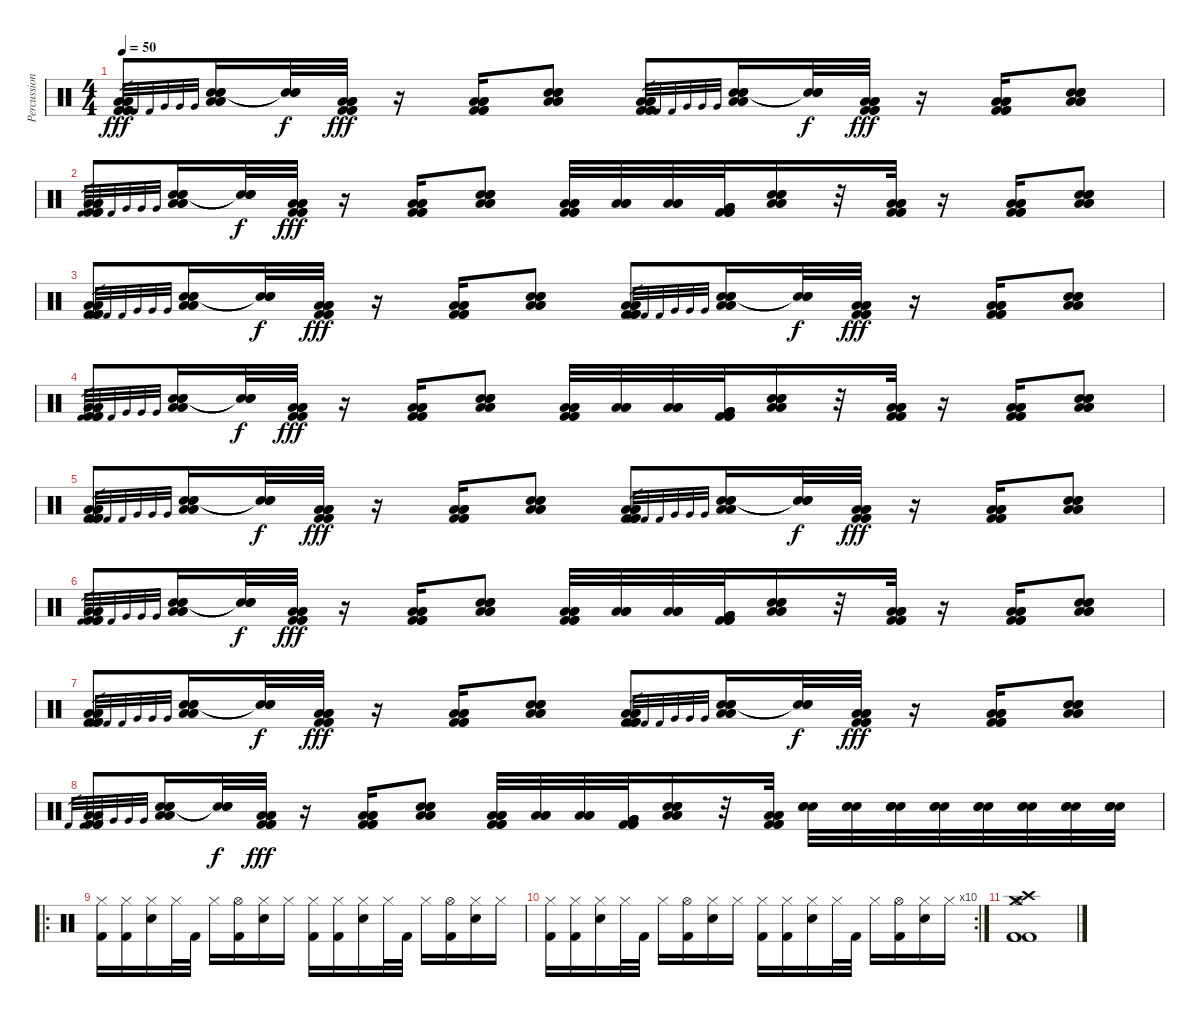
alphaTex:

\track ("Percussion" "Percussion") {instrument percussion}
\staff {score}
\articulation defaults
\ts (4 4)
\tempo 50
\clef neutral
\ks c
("Kick (hit) 2" "Kick (hit) 2" "Kick (hit) 2" "Low Floor Tom (hit)" "Low Floor Tom (hit)" "Low Floor Tom (hit)").8{dy fff} "Kick (hit) 2".32{gr} "Kick (hit) 2".32{gr} "Kick (hit) 2".32{gr} "Very Low Tom (hit)".32{gr} "Very Low Tom (hit)".32{gr} "Very Low Tom (hit)".32{gr} ("Electric Snare (hit)" "Electric Snare (hit)" "Electric Snare (hit)" "Low Tom (hit)" "Low Tom (hit)" "Low Tom (hit)").16 ("Snare (hit)"{t} "Snare (hit)"{t} "Snare (hit)"{t}).32{dy f} ("Kick (hit) 2" "Kick (hit) 2" "Kick (hit) 2" "Low Floor Tom (hit)" "Low Floor Tom (hit)" "Low Floor Tom (hit)").32{dy fff} r.16 ("Kick (hit) 2" "Kick (hit) 2" "Kick (hit) 2" "Low Floor Tom (hit)" "Low Floor Tom (hit)" "Low Floor Tom (hit)").16 ("Electric Snare (hit)" "Electric Snare (hit)" "Electric Snare (hit)" "Low Tom (hit)" "Low Tom (hit)" "Low Tom (hit)").8 ("Kick (hit) 2" "Kick (hit) 2" "Kick (hit) 2" "Low Floor Tom (hit)" "Low Floor Tom (hit)" "Low Floor Tom (hit)").8 "Kick (hit) 2".32{gr} "Kick (hit) 2".32{gr} "Kick (hit) 2".32{gr} "Very Low Tom (hit)".32{gr} "Very Low Tom (hit)".32{gr} "Very Low Tom (hit)".32{gr} ("Electric Snare (hit)" "Electric Snare (hit)" "Electric Snare (hit)" "Low Tom (hit)" "Low Tom (hit)" "Low Tom (hit)").16 ("Snare (hit)"{t} "Snare (hit)"{t} "Snare (hit)"{t}).32{dy f} ("Kick (hit) 2" "Kick (hit) 2" "Kick (hit) 2" "Low Floor Tom (hit)" "Low Floor Tom (hit)" "Low Floor Tom (hit)").32{dy fff} r.16 ("Kick (hit) 2" "Kick (hit) 2" "Kick (hit) 2" "Low Floor Tom (hit)" "Low Floor Tom (hit)" "Low Floor Tom (hit)").16 ("Electric Snare (hit)" "Electric Snare (hit)" "Electric Snare (hit)" "Low Tom (hit)" "Low Tom (hit)" "Low Tom (hit)").8 |
("Kick (hit) 2" "Kick (hit) 2" "Kick (hit) 2" "Low Floor Tom (hit)" "Low Floor Tom (hit)" "Low Floor Tom (hit)").8 "Kick (hit) 2".32{gr} "Kick (hit) 2".32{gr} "Kick (hit) 2".32{gr} "Very Low Tom (hit)".32{gr} "Very Low Tom (hit)".32{gr} "Very Low Tom (hit)".32{gr} ("Electric Snare (hit)" "Electric Snare (hit)" "Electric Snare (hit)" "Low Tom (hit)" "Low Tom (hit)" "Low Tom (hit)").16 ("Snare (hit)"{t} "Snare (hit)"{t} "Snare (hit)"{t}).32{dy f} ("Kick (hit) 2" "Kick (hit) 2" "Kick (hit) 2" "Low Floor Tom (hit)" "Low Floor Tom (hit)" "Low Floor Tom (hit)").32{dy fff} r.16 ("Kick (hit) 2" "Kick (hit) 2" "Kick (hit) 2" "Low Floor Tom (hit)" "Low Floor Tom (hit)" "Low Floor Tom (hit)").16 ("Electric Snare (hit)" "Electric Snare (hit)" "Electric Snare (hit)" "Low Tom (hit)" "Low Tom (hit)" "Low Tom (hit)").8 ("Kick (hit) 2" "Kick (hit) 2" "Kick (hit) 2" "Low Floor Tom (hit)" "Low Floor Tom (hit)" "Low Floor Tom (hit)").32 ("Low Tom (hit)" "Low Tom (hit)" "Low Tom (hit)").32 ("Low Floor Tom (hit)" "Low Floor Tom (hit)" "Low Floor Tom (hit)").32 ("Very Low Tom (hit)" "Very Low Tom (hit)" "Very Low Tom (hit)" "Kick (hit) 2" "Kick (hit) 2" "Kick (hit) 2").32 ("Electric Snare (hit)" "Electric Snare (hit)" "Electric Snare (hit)" "Low Tom (hit)" "Low Tom (hit)" "Low Tom (hit)").16 r.32 ("Kick (hit) 2" "Kick (hit) 2" "Kick (hit) 2" "Low Floor Tom (hit)" "Low Floor Tom (hit)" "Low Floor Tom (hit)").32 r.16 ("Kick (hit) 2" "Kick (hit) 2" "Kick (hit) 2" "Low Floor Tom (hit)" "Low Floor Tom (hit)" "Low Floor Tom (hit)").16 ("Electric Snare (hit)" "Electric Snare (hit)" "Electric Snare (hit)" "Low Tom (hit)" "Low Tom (hit)" "Low Tom (hit)").8 |
("Kick (hit) 2" "Kick (hit) 2" "Kick (hit) 2" "Low Floor Tom (hit)" "Low Floor Tom (hit)" "Low Floor Tom (hit)").8 "Kick (hit) 2".32{gr} "Kick (hit) 2".32{gr} "Kick (hit) 2".32{gr} "Very Low Tom (hit)".32{gr} "Very Low Tom (hit)".32{gr} "Very Low Tom (hit)".32{gr} ("Electric Snare (hit)" "Electric Snare (hit)" "Electric Snare (hit)" "Low Tom (hit)" "Low Tom (hit)" "Low Tom (hit)").16 ("Snare (hit)"{t} "Snare (hit)"{t} "Snare (hit)"{t}).32{dy f} ("Kick (hit) 2" "Kick (hit) 2" "Kick (hit) 2" "Low Floor Tom (hit)" "Low Floor Tom (hit)" "Low Floor Tom (hit)").32{dy fff} r.16 ("Kick (hit) 2" "Kick (hit) 2" "Kick (hit) 2" "Low Floor Tom (hit)" "Low Floor Tom (hit)" "Low Floor Tom (hit)").16 ("Electric Snare (hit)" "Electric Snare (hit)" "Electric Snare (hit)" "Low Tom (hit)" "Low Tom (hit)" "Low Tom (hit)").8 ("Kick (hit) 2" "Kick (hit) 2" "Kick (hit) 2" "Low Floor Tom (hit)" "Low Floor Tom (hit)" "Low Floor Tom (hit)").8 "Kick (hit) 2".32{gr} "Kick (hit) 2".32{gr} "Kick (hit) 2".32{gr} "Very Low Tom (hit)".32{gr} "Very Low Tom (hit)".32{gr} "Very Low Tom (hit)".32{gr} ("Electric Snare (hit)" "Electric Snare (hit)" "Electric Snare (hit)" "Low Tom (hit)" "Low Tom (hit)" "Low Tom (hit)").16 ("Snare (hit)"{t} "Snare (hit)"{t} "Snare (hit)"{t}).32{dy f} ("Kick (hit) 2" "Kick (hit) 2" "Kick (hit) 2" "Low Floor Tom (hit)" "Low Floor Tom (hit)" "Low Floor Tom (hit)").32{dy fff} r.16 ("Kick (hit) 2" "Kick (hit) 2" "Kick (hit) 2" "Low Floor Tom (hit)" "Low Floor Tom (hit)" "Low Floor Tom (hit)").16 ("Electric Snare (hit)" "Electric Snare (hit)" "Electric Snare (hit)" "Low Tom (hit)" "Low Tom (hit)" "Low Tom (hit)").8 |
("Kick (hit) 2" "Kick (hit) 2" "Kick (hit) 2" "Low Floor Tom (hit)" "Low Floor Tom (hit)" "Low Floor Tom (hit)").8 "Kick (hit) 2".32{gr} "Kick (hit) 2".32{gr} "Kick (hit) 2".32{gr} "Very Low Tom (hit)".32{gr} "Very Low Tom (hit)".32{gr} "Very Low Tom (hit)".32{gr} ("Electric Snare (hit)" "Electric Snare (hit)" "Electric Snare (hit)" "Low Tom (hit)" "Low Tom (hit)" "Low Tom (hit)").16 ("Snare (hit)"{t} "Snare (hit)"{t} "Snare (hit)"{t}).32{dy f} ("Kick (hit) 2" "Kick (hit) 2" "Kick (hit) 2" "Low Floor Tom (hit)" "Low Floor Tom (hit)" "Low Floor Tom (hit)").32{dy fff} r.16 ("Kick (hit) 2" "Kick (hit) 2" "Kick (hit) 2" "Low Floor Tom (hit)" "Low Floor Tom (hit)" "Low Floor Tom (hit)").16 ("Electric Snare (hit)" "Electric Snare (hit)" "Electric Snare (hit)" "Low Tom (hit)" "Low Tom (hit)" "Low Tom (hit)").8 ("Kick (hit) 2" "Kick (hit) 2" "Kick (hit) 2" "Low Floor Tom (hit)" "Low Floor Tom (hit)" "Low Floor Tom (hit)").32 ("Low Tom (hit)" "Low Tom (hit)" "Low Tom (hit)").32 ("Low Floor Tom (hit)" "Low Floor Tom (hit)" "Low Floor Tom (hit)").32 ("Very Low Tom (hit)" "Very Low Tom (hit)" "Very Low Tom (hit)" "Kick (hit) 2" "Kick (hit) 2" "Kick (hit) 2").32 ("Electric Snare (hit)" "Electric Snare (hit)" "Electric Snare (hit)" "Low Tom (hit)" "Low Tom (hit)" "Low Tom (hit)").16 r.32 ("Kick (hit) 2" "Kick (hit) 2" "Kick (hit) 2" "Low Floor Tom (hit)" "Low Floor Tom (hit)" "Low Floor Tom (hit)").32 r.16 ("Kick (hit) 2" "Kick (hit) 2" "Kick (hit) 2" "Low Floor Tom (hit)" "Low Floor Tom (hit)" "Low Floor Tom (hit)").16 ("Electric Snare (hit)" "Electric Snare (hit)" "Electric Snare (hit)" "Low Tom (hit)" "Low Tom (hit)" "Low Tom (hit)").8 |
("Kick (hit) 2" "Kick (hit) 2" "Kick (hit) 2" "Low Floor Tom (hit)" "Low Floor Tom (hit)" "Low Floor Tom (hit)").8 "Kick (hit) 2".32{gr} "Kick (hit) 2".32{gr} "Kick (hit) 2".32{gr} "Very Low Tom (hit)".32{gr} "Very Low Tom (hit)".32{gr} "Very Low Tom (hit)".32{gr} ("Electric Snare (hit)" "Electric Snare (hit)" "Electric Snare (hit)" "Low Tom (hit)" "Low Tom (hit)" "Low Tom (hit)").16 ("Snare (hit)"{t} "Snare (hit)"{t} "Snare (hit)"{t}).32{dy f} ("Kick (hit) 2" "Kick (hit) 2" "Kick (hit) 2" "Low Floor Tom (hit)" "Low Floor Tom (hit)" "Low Floor Tom (hit)").32{dy fff} r.16 ("Kick (hit) 2" "Kick (hit) 2" "Kick (hit) 2" "Low Floor Tom (hit)" "Low Floor Tom (hit)" "Low Floor Tom (hit)").16 ("Electric Snare (hit)" "Electric Snare (hit)" "Electric Snare (hit)" "Low Tom (hit)" "Low Tom (hit)" "Low Tom (hit)").8 ("Kick (hit) 2" "Kick (hit) 2" "Kick (hit) 2" "Low Floor Tom (hit)" "Low Floor Tom (hit)" "Low Floor Tom (hit)").8 "Kick (hit) 2".32{gr} "Kick (hit) 2".32{gr} "Kick (hit) 2".32{gr} "Very Low Tom (hit)".32{gr} "Very Low Tom (hit)".32{gr} "Very Low Tom (hit)".32{gr} ("Electric Snare (hit)" "Electric Snare (hit)" "Electric Snare (hit)" "Low Tom (hit)" "Low Tom (hit)" "Low Tom (hit)").16 ("Snare (hit)"{t} "Snare (hit)"{t} "Snare (hit)"{t}).32{dy f} ("Kick (hit) 2" "Kick (hit) 2" "Kick (hit) 2" "Low Floor Tom (hit)" "Low Floor Tom (hit)" "Low Floor Tom (hit)").32{dy fff} r.16 ("Kick (hit) 2" "Kick (hit) 2" "Kick (hit) 2" "Low Floor Tom (hit)" "Low Floor Tom (hit)" "Low Floor Tom (hit)").16 ("Electric Snare (hit)" "Electric Snare (hit)" "Electric Snare (hit)" "Low Tom (hit)" "Low Tom (hit)" "Low Tom (hit)").8 |
("Kick (hit) 2" "Kick (hit) 2" "Kick (hit) 2" "Low Floor Tom (hit)" "Low Floor Tom (hit)" "Low Floor Tom (hit)").8 "Kick (hit) 2".32{gr} "Kick (hit) 2".32{gr} "Kick (hit) 2".32{gr} "Very Low Tom (hit)".32{gr} "Very Low Tom (hit)".32{gr} "Very Low Tom (hit)".32{gr} ("Electric Snare (hit)" "Electric Snare (hit)" "Electric Snare (hit)" "Low Tom (hit)" "Low Tom (hit)" "Low Tom (hit)").16 ("Snare (hit)"{t} "Snare (hit)"{t} "Snare (hit)"{t}).32{dy f} ("Kick (hit) 2" "Kick (hit) 2" "Kick (hit) 2" "Low Floor Tom (hit)" "Low Floor Tom (hit)" "Low Floor Tom (hit)").32{dy fff} r.16 ("Kick (hit) 2" "Kick (hit) 2" "Kick (hit) 2" "Low Floor Tom (hit)" "Low Floor Tom (hit)" "Low Floor Tom (hit)").16 ("Electric Snare (hit)" "Electric Snare (hit)" "Electric Snare (hit)" "Low Tom (hit)" "Low Tom (hit)" "Low Tom (hit)").8 ("Kick (hit) 2" "Kick (hit) 2" "Kick (hit) 2" "Low Floor Tom (hit)" "Low Floor Tom (hit)" "Low Floor Tom (hit)").32 ("Low Tom (hit)" "Low Tom (hit)" "Low Tom (hit)").32 ("Low Floor Tom (hit)" "Low Floor Tom (hit)" "Low Floor Tom (hit)").32 ("Very Low Tom (hit)" "Very Low Tom (hit)" "Very Low Tom (hit)" "Kick (hit) 2" "Kick (hit) 2" "Kick (hit) 2").32 ("Electric Snare (hit)" "Electric Snare (hit)" "Electric Snare (hit)" "Low Tom (hit)" "Low Tom (hit)" "Low Tom (hit)").16 r.32 ("Kick (hit) 2" "Kick (hit) 2" "Kick (hit) 2" "Low Floor Tom (hit)" "Low Floor Tom (hit)" "Low Floor Tom (hit)").32 r.16 ("Kick (hit) 2" "Kick (hit) 2" "Kick (hit) 2" "Low Floor Tom (hit)" "Low Floor Tom (hit)" "Low Floor Tom (hit)").16 ("Electric Snare (hit)" "Electric Snare (hit)" "Electric Snare (hit)" "Low Tom (hit)" "Low Tom (hit)" "Low Tom (hit)").8 |
("Kick (hit) 2" "Kick (hit) 2" "Kick (hit) 2" "Low Floor Tom (hit)" "Low Floor Tom (hit)" "Low Floor Tom (hit)").8 "Kick (hit) 2".32{gr} "Kick (hit) 2".32{gr} "Kick (hit) 2".32{gr} "Very Low Tom (hit)".32{gr} "Very Low Tom (hit)".32{gr} "Very Low Tom (hit)".32{gr} ("Electric Snare (hit)" "Electric Snare (hit)" "Electric Snare (hit)" "Low Tom (hit)" "Low Tom (hit)" "Low Tom (hit)").16 ("Snare (hit)"{t} "Snare (hit)"{t} "Snare (hit)"{t}).32{dy f} ("Kick (hit) 2" "Kick (hit) 2" "Kick (hit) 2" "Low Floor Tom (hit)" "Low Floor Tom (hit)" "Low Floor Tom (hit)").32{dy fff} r.16 ("Kick (hit) 2" "Kick (hit) 2" "Kick (hit) 2" "Low Floor Tom (hit)" "Low Floor Tom (hit)" "Low Floor Tom (hit)").16 ("Electric Snare (hit)" "Electric Snare (hit)" "Electric Snare (hit)" "Low Tom (hit)" "Low Tom (hit)" "Low Tom (hit)").8 ("Kick (hit) 2" "Kick (hit) 2" "Kick (hit) 2" "Low Floor Tom (hit)" "Low Floor Tom (hit)" "Low Floor Tom (hit)").8 "Kick (hit) 2".32{gr} "Kick (hit) 2".32{gr} "Kick (hit) 2".32{gr} "Very Low Tom (hit)".32{gr} "Very Low Tom (hit)".32{gr} "Very Low Tom (hit)".32{gr} ("Electric Snare (hit)" "Electric Snare (hit)" "Electric Snare (hit)" "Low Tom (hit)" "Low Tom (hit)" "Low Tom (hit)").16 ("Snare (hit)"{t} "Snare (hit)"{t} "Snare (hit)"{t}).32{dy f} ("Kick (hit) 2" "Kick (hit) 2" "Kick (hit) 2" "Low Floor Tom (hit)" "Low Floor Tom (hit)" "Low Floor Tom (hit)").32{dy fff} r.16 ("Kick (hit) 2" "Kick (hit) 2" "Kick (hit) 2" "Low Floor Tom (hit)" "Low Floor Tom (hit)" "Low Floor Tom (hit)").16 ("Electric Snare (hit)" "Electric Snare (hit)" "Electric Snare (hit)" "Low Tom (hit)" "Low Tom (hit)" "Low Tom (hit)").8 |
("Kick (hit) 2" "Kick (hit) 2" "Kick (hit) 2" "Low Floor Tom (hit)" "Low Floor Tom (hit)" "Low Floor Tom (hit)").8 "Kick (hit) 2".32{gr} "Kick (hit) 2".32{gr} "Kick (hit) 2".32{gr} "Very Low Tom (hit)".32{gr} "Very Low Tom (hit)".32{gr} "Very Low Tom (hit)".32{gr} ("Electric Snare (hit)" "Electric Snare (hit)" "Electric Snare (hit)" "Low Tom (hit)" "Low Tom (hit)" "Low Tom (hit)").16 ("Snare (hit)"{t} "Snare (hit)"{t} "Snare (hit)"{t}).32{dy f} ("Kick (hit) 2" "Kick (hit) 2" "Kick (hit) 2" "Low Floor Tom (hit)" "Low Floor Tom (hit)" "Low Floor Tom (hit)").32{dy fff} r.16 ("Kick (hit) 2" "Kick (hit) 2" "Kick (hit) 2" "Low Floor Tom (hit)" "Low Floor Tom (hit)" "Low Floor Tom (hit)").16 ("Electric Snare (hit)" "Electric Snare (hit)" "Electric Snare (hit)" "Low Tom (hit)" "Low Tom (hit)" "Low Tom (hit)").8 ("Kick (hit) 2" "Kick (hit) 2" "Kick (hit) 2" "Low Floor Tom (hit)" "Low Floor Tom (hit)" "Low Floor Tom (hit)").32 ("Low Tom (hit)" "Low Tom (hit)" "Low Tom (hit)").32 ("Low Floor Tom (hit)" "Low Floor Tom (hit)" "Low Floor Tom (hit)").32 ("Very Low Tom (hit)" "Very Low Tom (hit)" "Very Low Tom (hit)" "Kick (hit) 2" "Kick (hit) 2" "Kick (hit) 2").32 ("Electric Snare (hit)" "Electric Snare (hit)" "Electric Snare (hit)" "Low Tom (hit)" "Low Tom (hit)" "Low Tom (hit)").16 r.32 ("Kick (hit) 2" "Kick (hit) 2" "Kick (hit) 2" "Low Floor Tom (hit)" "Low Floor Tom (hit)" "Low Floor Tom (hit)").32 ("Electric Snare (hit)" "Electric Snare (hit)" "Electric Snare (hit)").32 ("Electric Snare (hit)" "Electric Snare (hit)" "Electric Snare (hit)").32 ("Electric Snare (hit)" "Electric Snare (hit)" "Electric Snare (hit)").32 ("Electric Snare (hit)" "Electric Snare (hit)" "Electric Snare (hit)").32 ("Electric Snare (hit)" "Electric Snare (hit)" "Electric Snare (hit)").32 ("Electric Snare (hit)" "Electric Snare (hit)" "Electric Snare (hit)").32 ("Electric Snare (hit)" "Electric Snare (hit)" "Electric Snare (hit)").32 ("Electric Snare (hit)" "Electric Snare (hit)" "Electric Snare (hit)").32 |
\ro
("Kick (hit) 2" "Hi-Hat (closed)").16 ("Kick (hit) 2" "Hi-Hat (closed)").16 ("Electric Snare (hit)" "Hi-Hat (closed)").16 "Hi-Hat (closed)".32 "Kick (hit) 2".32 "Hi-Hat (closed)".16 ("Kick (hit) 2" "Hi-Hat (open)").16 ("Electric Snare (hit)" "Hi-Hat (closed)").16 "Hi-Hat (closed)".16 ("Kick (hit) 2" "Hi-Hat (closed)").16 ("Kick (hit) 2" "Hi-Hat (closed)").16 ("Electric Snare (hit)" "Hi-Hat (closed)").16 "Hi-Hat (closed)".32 "Kick (hit) 2".32 "Hi-Hat (closed)".16 ("Kick (hit) 2" "Hi-Hat (open)").16 ("Electric Snare (hit)" "Hi-Hat (closed)").16 "Hi-Hat (closed)".16 |
\rc 10
("Kick (hit) 2" "Hi-Hat (closed)").16 ("Kick (hit) 2" "Hi-Hat (closed)").16 ("Electric Snare (hit)" "Hi-Hat (closed)").16 "Hi-Hat (closed)".32 "Kick (hit) 2".32 "Hi-Hat (closed)".16 ("Kick (hit) 2" "Hi-Hat (open)").16 ("Electric Snare (hit)" "Hi-Hat (closed)").16 "Hi-Hat (closed)".16 ("Kick (hit) 2" "Hi-Hat (closed)").16 ("Kick (hit) 2" "Hi-Hat (closed)").16 ("Electric Snare (hit)" "Hi-Hat (closed)").16 "Hi-Hat (closed)".32 "Kick (hit) 2".32 "Hi-Hat (closed)".16 ("Kick (hit) 2" "Hi-Hat (open)").16 ("Electric Snare (hit)" "Hi-Hat (closed)").16 "Hi-Hat (closed)".16 |
("Kick (hit) 2" "Kick (hit) 2" "Kick (hit) 2" "Crash high (hit)" "Crash medium (hit)" "Hi-Hat (open)").1
